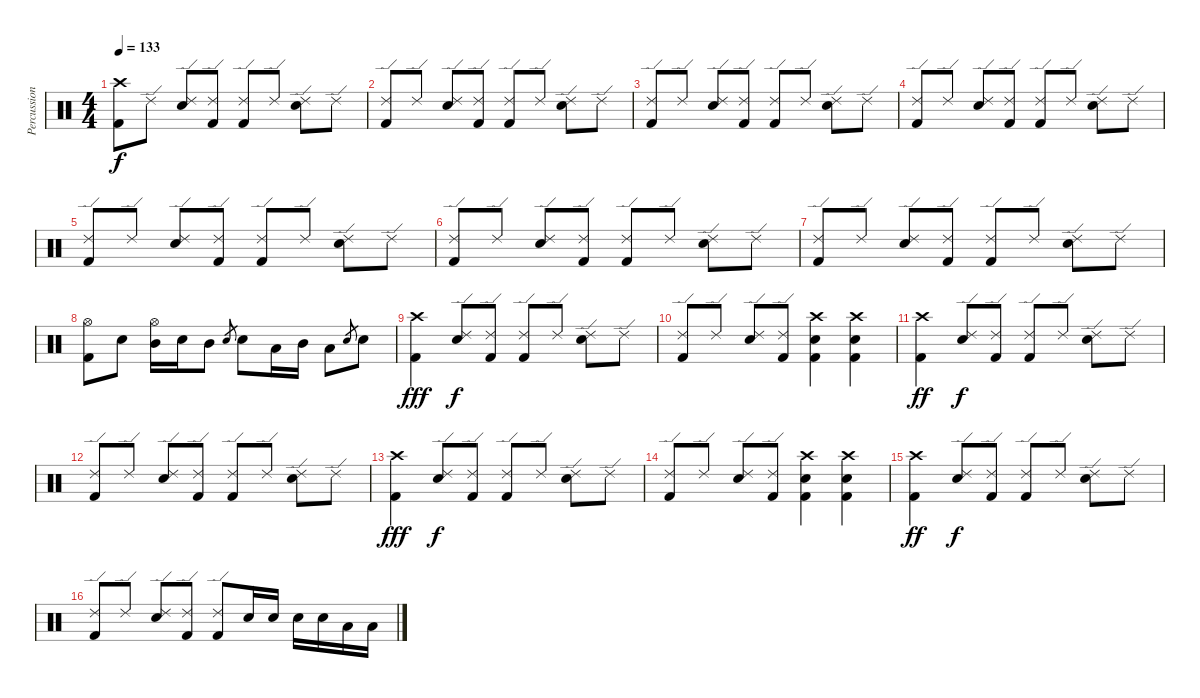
\track ("Percussion" "Percussion") {instrument percussion}
\staff {score}
\articulation defaults
\ts (4 4)
\tempo 133
\clef neutral
\ks c
("Crash high (hit)" "Kick (hit) 2").8{dy f} "Ride (edge) 2".8 ("Ride (edge) 2" "Snare (hit) 2").8 ("Ride (edge) 2" "Kick (hit) 2").8 ("Ride (edge) 2" "Kick (hit) 2").8 "Ride (edge) 2".8 ("Ride (edge) 2" "Snare (hit) 2").8 "Ride (edge) 2".8 |
("Ride (edge) 2" "Kick (hit) 2").8 "Ride (edge) 2".8 ("Ride (edge) 2" "Snare (hit) 2").8 ("Ride (edge) 2" "Kick (hit) 2").8 ("Ride (edge) 2" "Kick (hit) 2").8 "Ride (edge) 2".8 ("Ride (edge) 2" "Snare (hit) 2").8 "Ride (edge) 2".8 |
("Ride (edge) 2" "Kick (hit) 2").8 "Ride (edge) 2".8 ("Ride (edge) 2" "Snare (hit) 2").8 ("Ride (edge) 2" "Kick (hit) 2").8 ("Ride (edge) 2" "Kick (hit) 2").8 "Ride (edge) 2".8 ("Ride (edge) 2" "Snare (hit) 2").8 "Ride (edge) 2".8 |
("Ride (edge) 2" "Kick (hit) 2").8 "Ride (edge) 2".8 ("Ride (edge) 2" "Snare (hit) 2").8 ("Ride (edge) 2" "Kick (hit) 2").8 ("Ride (edge) 2" "Kick (hit) 2").8 "Ride (edge) 2".8 ("Ride (edge) 2" "Snare (hit) 2").8 "Ride (edge) 2".8 |
("Ride (edge) 2" "Kick (hit) 2").8 "Ride (edge) 2".8 ("Ride (edge) 2" "Snare (hit) 2").8 ("Ride (edge) 2" "Kick (hit) 2").8 ("Ride (edge) 2" "Kick (hit) 2").8 "Ride (edge) 2".8 ("Ride (edge) 2" "Snare (hit) 2").8 "Ride (edge) 2".8 |
("Ride (edge) 2" "Kick (hit) 2").8 "Ride (edge) 2".8 ("Ride (edge) 2" "Snare (hit) 2").8 ("Ride (edge) 2" "Kick (hit) 2").8 ("Ride (edge) 2" "Kick (hit) 2").8 "Ride (edge) 2".8 ("Ride (edge) 2" "Snare (hit) 2").8 "Ride (edge) 2".8 |
("Ride (edge) 2" "Kick (hit) 2").8 "Ride (edge) 2".8 ("Ride (edge) 2" "Snare (hit) 2").8 ("Ride (edge) 2" "Kick (hit) 2").8 ("Ride (edge) 2" "Kick (hit) 2").8 "Ride (edge) 2".8 ("Ride (edge) 2" "Snare (hit) 2").8 "Ride (edge) 2".8 |
("Hi-Hat (open)" "Kick (hit) 2").8 "Snare (hit) 2".8 ("Hi-Hat (open)" "Mid Tom (hit)").16 "Snare (hit) 2".16 "Mid Tom (hit)".8 "Snare (hit) 2".8{gr} "Snare (hit) 2".8 "Low Tom (hit)".16 "Mid Tom (hit)".16 "Low Tom (hit)".8 "Snare (hit) 2".8{gr} "Snare (hit) 2".8 |
("Crash high (hit)" "Kick (hit) 2").4{dy fff} ("Ride (edge) 2" "Snare (hit) 2").8{dy f} ("Ride (edge) 2" "Kick (hit) 2").8 ("Ride (edge) 2" "Kick (hit) 2").8 "Ride (edge) 2".8 ("Ride (edge) 2" "Snare (hit) 2").8 "Ride (edge) 2".8 |
("Ride (edge) 2" "Kick (hit) 2").8 "Ride (edge) 2".8 ("Ride (edge) 2" "Snare (hit) 2").8 ("Ride (edge) 2" "Kick (hit) 2").8 ("Crash high (hit)" "Electric Snare (hit)" "Kick (hit) 2").4 ("Crash high (hit)" "Electric Snare (hit)" "Kick (hit) 2").4 |
("Crash high (hit)" "Kick (hit) 2").4{dy ff} ("Ride (edge) 2" "Snare (hit) 2").8{dy f} ("Ride (edge) 2" "Kick (hit) 2").8 ("Ride (edge) 2" "Kick (hit) 2").8 "Ride (edge) 2".8 ("Ride (edge) 2" "Snare (hit) 2").8 "Ride (edge) 2".8 |
("Ride (edge) 2" "Kick (hit) 2").8 "Ride (edge) 2".8 ("Ride (edge) 2" "Snare (hit) 2").8 ("Ride (edge) 2" "Kick (hit) 2").8 ("Ride (edge) 2" "Kick (hit) 2").8 "Ride (edge) 2".8 ("Ride (edge) 2" "Snare (hit) 2").8 "Ride (edge) 2".8 |
("Crash high (hit)" "Kick (hit) 2").4{dy fff} ("Ride (edge) 2" "Snare (hit) 2").8{dy f} ("Ride (edge) 2" "Kick (hit) 2").8 ("Ride (edge) 2" "Kick (hit) 2").8 "Ride (edge) 2".8 ("Ride (edge) 2" "Snare (hit) 2").8 "Ride (edge) 2".8 |
("Ride (edge) 2" "Kick (hit) 2").8 "Ride (edge) 2".8 ("Ride (edge) 2" "Snare (hit) 2").8 ("Ride (edge) 2" "Kick (hit) 2").8 ("Crash high (hit)" "Electric Snare (hit)" "Kick (hit) 2").4 ("Crash high (hit)" "Electric Snare (hit)" "Kick (hit) 2").4 |
("Crash high (hit)" "Kick (hit) 2").4{dy ff} ("Ride (edge) 2" "Snare (hit) 2").8{dy f} ("Ride (edge) 2" "Kick (hit) 2").8 ("Ride (edge) 2" "Kick (hit) 2").8 "Ride (edge) 2".8 ("Ride (edge) 2" "Snare (hit) 2").8 "Ride (edge) 2".8 |
("Ride (edge) 2" "Kick (hit) 2").8 "Ride (edge) 2".8 ("Ride (edge) 2" "Snare (hit) 2").8 ("Ride (edge) 2" "Kick (hit) 2").8 ("Ride (edge) 2" "Kick (hit) 2").8 "Snare (hit) 2".16 "Snare (hit) 2".16 "Snare (hit) 2".16 "Snare (hit) 2".16 "Low Tom (hit)".16 "Low Tom (hit)".16
